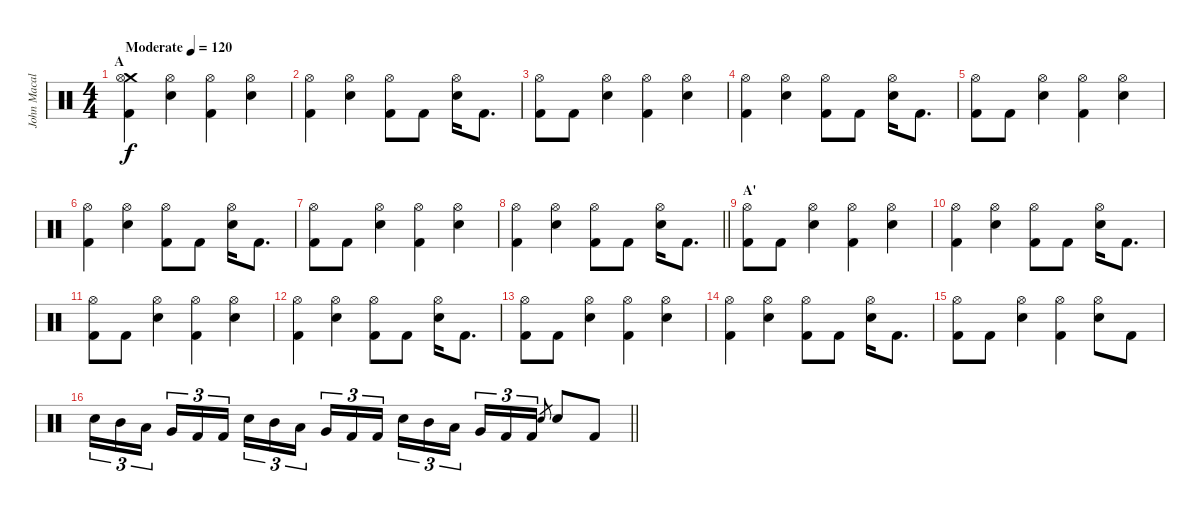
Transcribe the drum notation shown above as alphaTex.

\track ("John Macaluso" "John Macal") {instrument percussion}
\staff {score}
\articulation defaults
\ts (4 4)
\section ("" "A")
\tempo (120 "Moderate")
\clef neutral
\ks c
("Crash medium (hit)" "Hi-Hat (open)" "Kick (hit) 2").4{dy f} ("Hi-Hat (open)" "Snare (hit) 2").4 ("Hi-Hat (open)" "Kick (hit) 2").4 ("Hi-Hat (open)" "Snare (hit) 2").4 |
("Hi-Hat (open)" "Kick (hit) 2").4 ("Hi-Hat (open)" "Snare (hit) 2").4 ("Hi-Hat (open)" "Kick (hit) 2").8 "Kick (hit) 2".8 ("Hi-Hat (open)" "Snare (hit) 2").16 "Kick (hit) 2".8{d} |
("Hi-Hat (open)" "Kick (hit) 2").8 "Kick (hit) 2".8 ("Hi-Hat (open)" "Snare (hit) 2").4 ("Hi-Hat (open)" "Kick (hit) 2").4 ("Hi-Hat (open)" "Snare (hit) 2").4 |
("Hi-Hat (open)" "Kick (hit) 2").4 ("Hi-Hat (open)" "Snare (hit) 2").4 ("Hi-Hat (open)" "Kick (hit) 2").8 "Kick (hit) 2".8 ("Hi-Hat (open)" "Snare (hit) 2").16 "Kick (hit) 2".8{d} |
("Hi-Hat (open)" "Kick (hit) 2").8 "Kick (hit) 2".8 ("Hi-Hat (open)" "Snare (hit) 2").4 ("Hi-Hat (open)" "Kick (hit) 2").4 ("Hi-Hat (open)" "Snare (hit) 2").4 |
("Hi-Hat (open)" "Kick (hit) 2").4 ("Hi-Hat (open)" "Snare (hit) 2").4 ("Hi-Hat (open)" "Kick (hit) 2").8 "Kick (hit) 2".8 ("Hi-Hat (open)" "Snare (hit) 2").16 "Kick (hit) 2".8{d} |
("Hi-Hat (open)" "Kick (hit) 2").8 "Kick (hit) 2".8 ("Hi-Hat (open)" "Snare (hit) 2").4 ("Hi-Hat (open)" "Kick (hit) 2").4 ("Hi-Hat (open)" "Snare (hit) 2").4 |
\barLineRight lightlight
("Hi-Hat (open)" "Kick (hit) 2").4 ("Hi-Hat (open)" "Snare (hit) 2").4 ("Hi-Hat (open)" "Kick (hit) 2").8 "Kick (hit) 2".8 ("Hi-Hat (open)" "Snare (hit) 2").16 "Kick (hit) 2".8{d} |
\section ("" "A'")
("Hi-Hat (open)" "Kick (hit) 2").8 "Kick (hit) 2".8 ("Hi-Hat (open)" "Snare (hit) 2").4 ("Hi-Hat (open)" "Kick (hit) 2").4 ("Hi-Hat (open)" "Snare (hit) 2").4 |
("Hi-Hat (open)" "Kick (hit) 2").4 ("Hi-Hat (open)" "Snare (hit) 2").4 ("Hi-Hat (open)" "Kick (hit) 2").8 "Kick (hit) 2".8 ("Hi-Hat (open)" "Snare (hit) 2").16 "Kick (hit) 2".8{d} |
("Hi-Hat (open)" "Kick (hit) 2").8 "Kick (hit) 2".8 ("Hi-Hat (open)" "Snare (hit) 2").4 ("Hi-Hat (open)" "Kick (hit) 2").4 ("Hi-Hat (open)" "Snare (hit) 2").4 |
("Hi-Hat (open)" "Kick (hit) 2").4 ("Hi-Hat (open)" "Snare (hit) 2").4 ("Hi-Hat (open)" "Kick (hit) 2").8 "Kick (hit) 2".8 ("Hi-Hat (open)" "Snare (hit) 2").16 "Kick (hit) 2".8{d} |
("Hi-Hat (open)" "Kick (hit) 2").8 "Kick (hit) 2".8 ("Hi-Hat (open)" "Snare (hit) 2").4 ("Hi-Hat (open)" "Kick (hit) 2").4 ("Hi-Hat (open)" "Snare (hit) 2").4 |
("Hi-Hat (open)" "Kick (hit) 2").4 ("Hi-Hat (open)" "Snare (hit) 2").4 ("Hi-Hat (open)" "Kick (hit) 2").8 "Kick (hit) 2".8 ("Hi-Hat (open)" "Snare (hit) 2").16 "Kick (hit) 2".8{d} |
("Hi-Hat (open)" "Kick (hit) 2").8 "Kick (hit) 2".8 ("Hi-Hat (open)" "Snare (hit) 2").4 ("Hi-Hat (open)" "Kick (hit) 2").4 ("Hi-Hat (open)" "Snare (hit) 2").8 "Kick (hit) 2".8 |
\barLineRight lightlight "Snare (hit) 2".16{tu (3 2)} "Mid Tom (hit)".16{tu (3 2)} "Low Tom (hit)".16{tu (3 2) beam splitsecondary} "Very Low Tom (hit)".16{tu (3 2)} "Kick (hit) 2".16{tu (3 2)} "Kick (hit) 2".16{tu (3 2)} "Snare (hit) 2".16{tu (3 2)} "Mid Tom (hit)".16{tu (3 2)} "Low Tom (hit)".16{tu (3 2) beam splitsecondary} "Very Low Tom (hit)".16{tu (3 2)} "Kick (hit) 2".16{tu (3 2)} "Kick (hit) 2".16{tu (3 2)} "Snare (hit) 2".16{tu (3 2)} "Mid Tom (hit)".16{tu (3 2)} "Low Tom (hit)".16{tu (3 2) beam splitsecondary} "Very Low Tom (hit)".16{tu (3 2)} "Kick (hit) 2".16{tu (3 2)} "Kick (hit) 2".16{tu (3 2)} "Snare (hit) 2".8{gr} "Snare (hit) 2".8 "Kick (hit) 2".8
